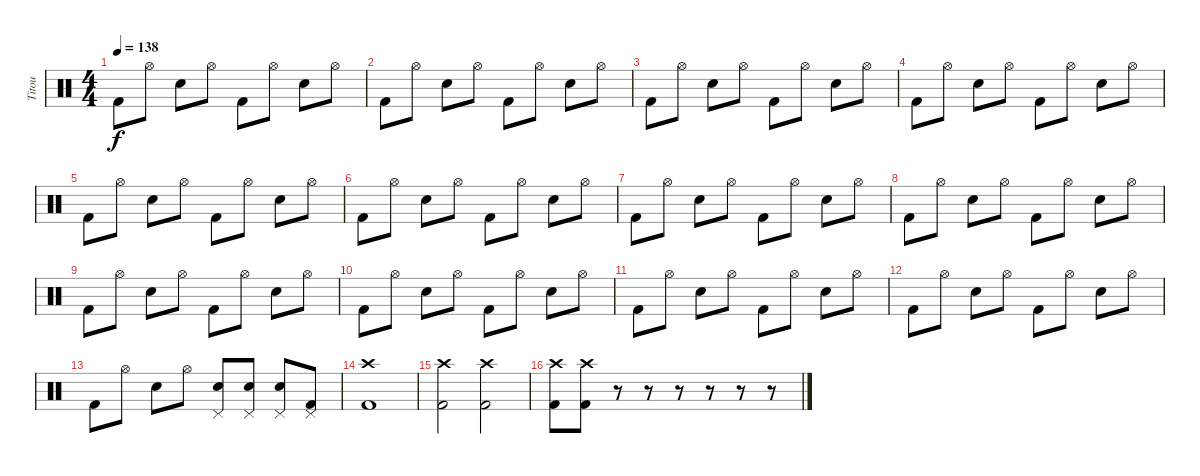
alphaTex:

\track ("Titou" "Titou") {instrument percussion}
\staff {score}
\articulation defaults
\ts (4 4)
\tempo 138
\clef neutral
\ks c "Kick (hit) 2".8{dy f} "Hi-Hat (open)".8 "Electric Snare (hit)".8 "Hi-Hat (open)".8 "Kick (hit) 2".8 "Hi-Hat (open)".8 "Electric Snare (hit)".8 "Hi-Hat (open)".8
|
"Kick (hit) 2".8 "Hi-Hat (open)".8 "Electric Snare (hit)".8 "Hi-Hat (open)".8 "Kick (hit) 2".8 "Hi-Hat (open)".8 "Electric Snare (hit)".8 "Hi-Hat (open)".8 |
"Kick (hit) 2".8 "Hi-Hat (open)".8 "Electric Snare (hit)".8 "Hi-Hat (open)".8 "Kick (hit) 2".8 "Hi-Hat (open)".8 "Electric Snare (hit)".8 "Hi-Hat (open)".8 |
"Kick (hit) 2".8 "Hi-Hat (open)".8 "Electric Snare (hit)".8 "Hi-Hat (open)".8 "Kick (hit) 2".8 "Hi-Hat (open)".8 "Electric Snare (hit)".8 "Hi-Hat (open)".8 |
"Kick (hit) 2".8 "Hi-Hat (open)".8 "Electric Snare (hit)".8 "Hi-Hat (open)".8 "Kick (hit) 2".8 "Hi-Hat (open)".8 "Electric Snare (hit)".8 "Hi-Hat (open)".8 |
"Kick (hit) 2".8 "Hi-Hat (open)".8 "Electric Snare (hit)".8 "Hi-Hat (open)".8 "Kick (hit) 2".8 "Hi-Hat (open)".8 "Electric Snare (hit)".8 "Hi-Hat (open)".8 |
"Kick (hit) 2".8 "Hi-Hat (open)".8 "Electric Snare (hit)".8 "Hi-Hat (open)".8 "Kick (hit) 2".8 "Hi-Hat (open)".8 "Electric Snare (hit)".8 "Hi-Hat (open)".8 |
"Kick (hit) 2".8 "Hi-Hat (open)".8 "Electric Snare (hit)".8 "Hi-Hat (open)".8 "Kick (hit) 2".8 "Hi-Hat (open)".8 "Electric Snare (hit)".8 "Hi-Hat (open)".8 |
"Kick (hit) 2".8 "Hi-Hat (open)".8 "Electric Snare (hit)".8 "Hi-Hat (open)".8 "Kick (hit) 2".8 "Hi-Hat (open)".8 "Electric Snare (hit)".8 "Hi-Hat (open)".8 |
"Kick (hit) 2".8 "Hi-Hat (open)".8 "Electric Snare (hit)".8 "Hi-Hat (open)".8 "Kick (hit) 2".8 "Hi-Hat (open)".8 "Electric Snare (hit)".8 "Hi-Hat (open)".8 |
"Kick (hit) 2".8 "Hi-Hat (open)".8 "Electric Snare (hit)".8 "Hi-Hat (open)".8 "Kick (hit) 2".8 "Hi-Hat (open)".8 "Electric Snare (hit)".8 "Hi-Hat (open)".8 |
"Kick (hit) 2".8 "Hi-Hat (open)".8 "Electric Snare (hit)".8 "Hi-Hat (open)".8 "Kick (hit) 2".8 "Hi-Hat (open)".8 "Electric Snare (hit)".8 "Hi-Hat (open)".8 |
"Kick (hit) 2".8 "Hi-Hat (open)".8 "Electric Snare (hit)".8 "Hi-Hat (open)".8 ("Pedal Hi-Hat (hit)" "Electric Snare (hit)").8 ("Pedal Hi-Hat (hit)" "Electric Snare (hit)").8 ("Pedal Hi-Hat (hit)" "Electric Snare (hit)").8 ("Pedal Hi-Hat (hit)" "Kick (hit) 2").8 |
("Kick (hit) 2" "Crash high (hit)").1 |
("Crash high (hit)" "Kick (hit) 2").2 ("Crash high (hit)" "Kick (hit) 2").2 |
("Crash high (hit)" "Kick (hit) 2").8 ("Crash high (hit)" "Kick (hit) 2").8 r.8 r.8 r.8 r.8 r.8 r.8
